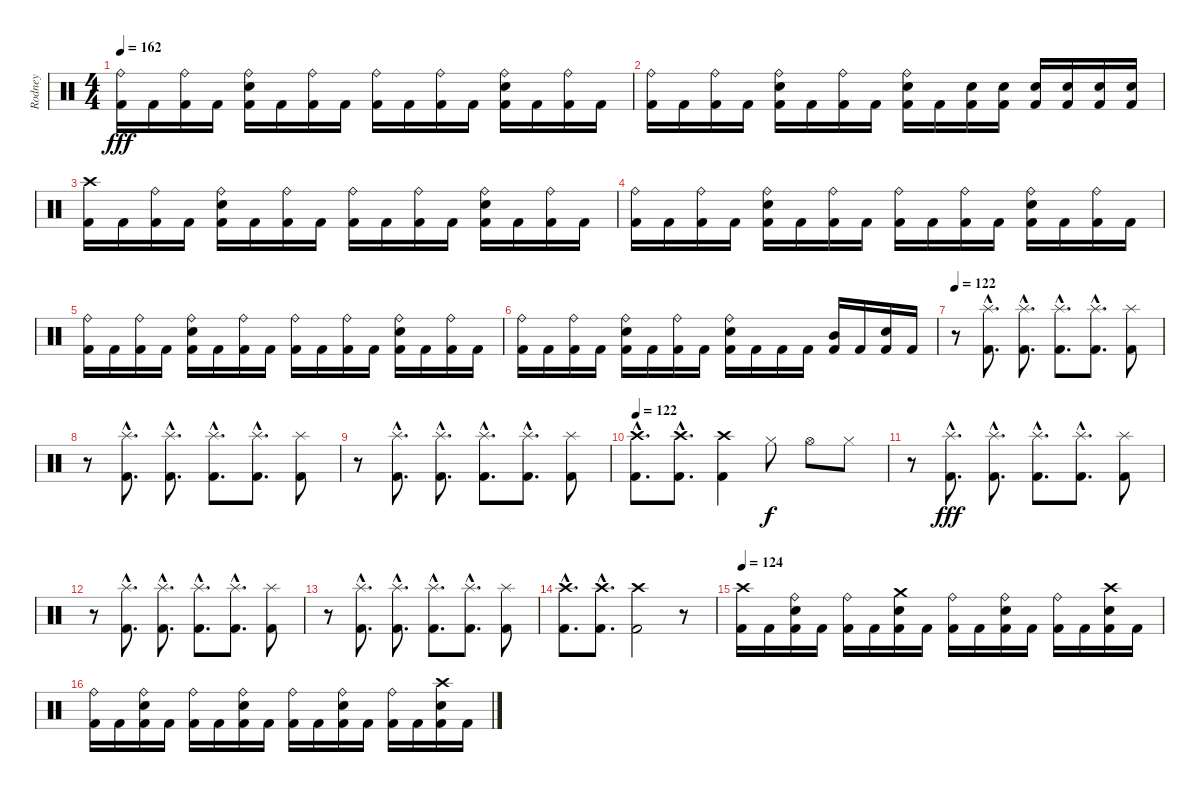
\track ("Rodney" "Rodney") {instrument percussion}
\staff {score}
\articulation defaults
\ts (4 4)
\tempo 162
\clef neutral
\ks c
("Ride (bell)" "Kick (hit) 2").16{dy fff} "Kick (hit) 2".16 ("Ride (bell)" "Kick (hit) 2").16 "Kick (hit) 2".16 ("Ride (bell)" "Snare (hit) 2" "Kick (hit) 2").16 "Kick (hit) 2".16 ("Ride (bell)" "Kick (hit) 2").16 "Kick (hit) 2".16 ("Ride (bell)" "Kick (hit) 2").16 "Kick (hit) 2".16 ("Ride (bell)" "Kick (hit) 2").16 "Kick (hit) 2".16 ("Ride (bell)" "Snare (hit) 2" "Kick (hit) 2").16 "Kick (hit) 2".16 ("Ride (bell)" "Kick (hit) 2").16 "Kick (hit) 2".16 |
("Ride (bell)" "Kick (hit) 2").16 "Kick (hit) 2".16 ("Ride (bell)" "Kick (hit) 2").16 "Kick (hit) 2".16 ("Ride (bell)" "Snare (hit) 2" "Kick (hit) 2").16 "Kick (hit) 2".16 ("Ride (bell)" "Kick (hit) 2").16 "Kick (hit) 2".16 ("Ride (bell)" "Snare (hit) 2" "Kick (hit) 2").16 "Kick (hit) 2".16 ("Snare (hit) 2" "Kick (hit) 2").16 ("Snare (hit) 2" "Kick (hit) 2").16 ("Snare (hit) 2" "Kick (hit) 2").16 ("Snare (hit) 2" "Kick (hit) 2").16 ("Snare (hit) 2" "Kick (hit) 2").16 ("Snare (hit) 2" "Kick (hit) 2").16 |
("Crash high (hit)" "Kick (hit) 2").16 "Kick (hit) 2".16 ("Ride (bell)" "Kick (hit) 2").16 "Kick (hit) 2".16 ("Ride (bell)" "Snare (hit) 2" "Kick (hit) 2").16 "Kick (hit) 2".16 ("Ride (bell)" "Kick (hit) 2").16 "Kick (hit) 2".16 ("Ride (bell)" "Kick (hit) 2").16 "Kick (hit) 2".16 ("Ride (bell)" "Kick (hit) 2").16 "Kick (hit) 2".16 ("Ride (bell)" "Snare (hit) 2" "Kick (hit) 2").16 "Kick (hit) 2".16 ("Ride (bell)" "Kick (hit) 2").16 "Kick (hit) 2".16 |
("Ride (bell)" "Kick (hit) 2").16 "Kick (hit) 2".16 ("Ride (bell)" "Kick (hit) 2").16 "Kick (hit) 2".16 ("Ride (bell)" "Snare (hit) 2" "Kick (hit) 2").16 "Kick (hit) 2".16 ("Ride (bell)" "Kick (hit) 2").16 "Kick (hit) 2".16 ("Ride (bell)" "Kick (hit) 2").16 "Kick (hit) 2".16 ("Ride (bell)" "Kick (hit) 2").16 "Kick (hit) 2".16 ("Ride (bell)" "Snare (hit) 2" "Kick (hit) 2").16 "Kick (hit) 2".16 ("Ride (bell)" "Kick (hit) 2").16 "Kick (hit) 2".16 |
("Ride (bell)" "Kick (hit) 2").16 "Kick (hit) 2".16 ("Ride (bell)" "Kick (hit) 2").16 "Kick (hit) 2".16 ("Ride (bell)" "Snare (hit) 2" "Kick (hit) 2").16 "Kick (hit) 2".16 ("Ride (bell)" "Kick (hit) 2").16 "Kick (hit) 2".16 ("Ride (bell)" "Kick (hit) 2").16 "Kick (hit) 2".16 ("Ride (bell)" "Kick (hit) 2").16 "Kick (hit) 2".16 ("Ride (bell)" "Snare (hit) 2" "Kick (hit) 2").16 "Kick (hit) 2".16 ("Ride (bell)" "Kick (hit) 2").16 "Kick (hit) 2".16 |
("Ride (bell)" "Kick (hit) 2").16 "Kick (hit) 2".16 ("Ride (bell)" "Kick (hit) 2").16 "Kick (hit) 2".16 ("Ride (bell)" "Snare (hit) 2" "Kick (hit) 2").16 "Kick (hit) 2".16 ("Ride (bell)" "Kick (hit) 2").16 "Kick (hit) 2".16 ("Ride (bell)" "Snare (hit) 2" "Kick (hit) 2").16 "Kick (hit) 2".16 "Kick (hit) 2".16 "Kick (hit) 2".16 ("Mid Tom (hit)" "Kick (hit) 2").16 "Kick (hit) 2".16 ("Snare (hit) 2" "Kick (hit) 2").16 "Kick (hit) 2".16 |
\tempo 122
r.8 ("Splash (hit)"{hac} "Kick (hit) 2"{hac}).8{d} ("Splash (hit)"{hac} "Kick (hit) 2"{hac}).8{d} ("Splash (hit)"{hac} "Kick (hit) 2"{hac}).8{d} ("Splash (hit)"{hac} "Kick (hit) 2"{hac}).8{d} ("Splash (hit)" "Kick (hit) 2").8 |
r.8 ("Splash (hit)"{hac} "Kick (hit) 2"{hac}).8{d} ("Splash (hit)"{hac} "Kick (hit) 2"{hac}).8{d} ("Splash (hit)"{hac} "Kick (hit) 2"{hac}).8{d} ("Splash (hit)"{hac} "Kick (hit) 2"{hac}).8{d} ("Splash (hit)" "Kick (hit) 2").8 |
r.8 ("Splash (hit)"{hac} "Kick (hit) 2"{hac}).8{d} ("Splash (hit)"{hac} "Kick (hit) 2"{hac}).8{d} ("Splash (hit)"{hac} "Kick (hit) 2"{hac}).8{d} ("Splash (hit)"{hac} "Kick (hit) 2"{hac}).8{d} ("Splash (hit)" "Kick (hit) 2").8 |
\tempo 122
("Crash high (hit)"{hac} "Kick (hit) 2"{hac}).8{d} ("Crash high (hit)"{hac} "Kick (hit) 2"{hac}).8{d} ("Crash high (hit)" "Kick (hit) 2").4 "Hi-Hat (closed)".8{dy f} "Hi-Hat (open)".8 "Hi-Hat (closed)".8 |
r.8 ("Splash (hit)"{hac} "Kick (hit) 2"{hac}).8{d dy fff} ("Splash (hit)"{hac} "Kick (hit) 2"{hac}).8{d} ("Splash (hit)"{hac} "Kick (hit) 2"{hac}).8{d} ("Splash (hit)"{hac} "Kick (hit) 2"{hac}).8{d} ("Splash (hit)" "Kick (hit) 2").8 |
r.8 ("Splash (hit)"{hac} "Kick (hit) 2"{hac}).8{d} ("Splash (hit)"{hac} "Kick (hit) 2"{hac}).8{d} ("Splash (hit)"{hac} "Kick (hit) 2"{hac}).8{d} ("Splash (hit)"{hac} "Kick (hit) 2"{hac}).8{d} ("Splash (hit)" "Kick (hit) 2").8 |
r.8 ("Splash (hit)"{hac} "Kick (hit) 2"{hac}).8{d} ("Splash (hit)"{hac} "Kick (hit) 2"{hac}).8{d} ("Splash (hit)"{hac} "Kick (hit) 2"{hac}).8{d} ("Splash (hit)"{hac} "Kick (hit) 2"{hac}).8{d} ("Splash (hit)" "Kick (hit) 2").8 |
("Crash high (hit)"{hac} "Kick (hit) 2"{hac}).8{d} ("Crash high (hit)"{hac} "Kick (hit) 2"{hac}).8{d} ("Crash high (hit)" "Kick (hit) 2").2 r.8 |
\tempo 124
("Crash high (hit)" "Kick (hit) 2").16 "Kick (hit) 2".16 ("Ride (bell)" "Snare (hit) 2" "Kick (hit) 2").16 "Kick (hit) 2".16 ("Ride (bell)" "Kick (hit) 2").16 "Kick (hit) 2".16 ("Crash medium (hit)" "Snare (hit) 2" "Kick (hit) 2").16 "Kick (hit) 2".16 ("Ride (bell)" "Kick (hit) 2").16 "Kick (hit) 2".16 ("Ride (bell)" "Snare (hit) 2" "Kick (hit) 2").16 "Kick (hit) 2".16 ("Ride (bell)" "Kick (hit) 2").16 "Kick (hit) 2".16 ("Crash high (hit)" "Snare (hit) 2" "Kick (hit) 2").16 "Kick (hit) 2".16 |
("Ride (bell)" "Kick (hit) 2").16 "Kick (hit) 2".16 ("Ride (bell)" "Snare (hit) 2" "Kick (hit) 2").16 "Kick (hit) 2".16 ("Ride (bell)" "Kick (hit) 2").16 "Kick (hit) 2".16 ("Ride (bell)" "Snare (hit) 2" "Kick (hit) 2").16 "Kick (hit) 2".16 ("Ride (bell)" "Kick (hit) 2").16 "Kick (hit) 2".16 ("Ride (bell)" "Snare (hit) 2" "Kick (hit) 2").16 "Kick (hit) 2".16 ("Ride (bell)" "Kick (hit) 2").16 "Kick (hit) 2".16 ("Crash high (hit)" "Snare (hit) 2" "Kick (hit) 2").16 "Kick (hit) 2".16
